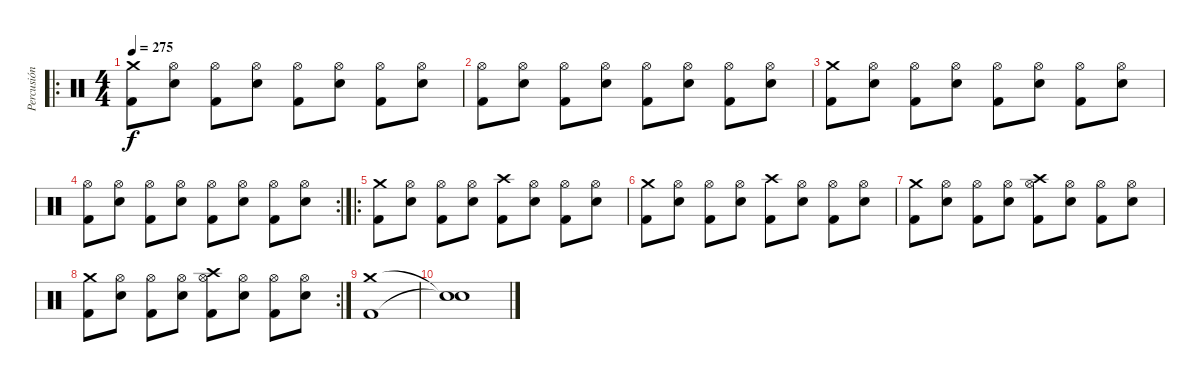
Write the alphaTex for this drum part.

\track ("Percusión" "Percusión") {instrument percussion}
\staff {score}
\articulation defaults
\ro
\ts (4 4)
\tempo 275
\clef neutral
\ks c
("Crash medium (hit)" "Kick (hit) 2").8{dy f} ("Hi-Hat (open)" "Electric Snare (hit)").8 ("Hi-Hat (open)" "Kick (hit) 2").8 ("Hi-Hat (open)" "Electric Snare (hit)").8 ("Hi-Hat (open)" "Kick (hit) 2").8 ("Hi-Hat (open)" "Electric Snare (hit)").8 ("Hi-Hat (open)" "Kick (hit) 2").8 ("Hi-Hat (open)" "Electric Snare (hit)").8 |
("Hi-Hat (open)" "Kick (hit) 2").8 ("Hi-Hat (open)" "Electric Snare (hit)").8 ("Hi-Hat (open)" "Kick (hit) 2").8 ("Hi-Hat (open)" "Electric Snare (hit)").8 ("Hi-Hat (open)" "Kick (hit) 2").8 ("Hi-Hat (open)" "Electric Snare (hit)").8 ("Hi-Hat (open)" "Kick (hit) 2").8 ("Hi-Hat (open)" "Electric Snare (hit)").8 |
("Crash medium (hit)" "Kick (hit) 2").8 ("Hi-Hat (open)" "Electric Snare (hit)").8 ("Hi-Hat (open)" "Kick (hit) 2").8 ("Hi-Hat (open)" "Electric Snare (hit)").8 ("Hi-Hat (open)" "Kick (hit) 2").8 ("Hi-Hat (open)" "Electric Snare (hit)").8 ("Hi-Hat (open)" "Kick (hit) 2").8 ("Hi-Hat (open)" "Electric Snare (hit)").8 |
\rc 2
("Hi-Hat (open)" "Kick (hit) 2").8 ("Hi-Hat (open)" "Electric Snare (hit)").8 ("Hi-Hat (open)" "Kick (hit) 2").8 ("Hi-Hat (open)" "Electric Snare (hit)").8 ("Hi-Hat (open)" "Kick (hit) 2").8 ("Hi-Hat (open)" "Electric Snare (hit)").8 ("Hi-Hat (open)" "Kick (hit) 2").8 ("Hi-Hat (open)" "Electric Snare (hit)").8 |
\ro
("Crash medium (hit)" "Kick (hit) 2").8 ("Hi-Hat (open)" "Electric Snare (hit)").8 ("Hi-Hat (open)" "Kick (hit) 2").8 ("Hi-Hat (open)" "Electric Snare (hit)").8 ("Crash high (hit)" "Kick (hit) 2").8 ("Hi-Hat (open)" "Electric Snare (hit)").8 ("Hi-Hat (open)" "Kick (hit) 2").8 ("Hi-Hat (open)" "Electric Snare (hit)").8 |
("Crash medium (hit)" "Kick (hit) 2").8 ("Hi-Hat (open)" "Electric Snare (hit)").8 ("Hi-Hat (open)" "Kick (hit) 2").8 ("Hi-Hat (open)" "Electric Snare (hit)").8 ("Crash high (hit)" "Kick (hit) 2").8 ("Hi-Hat (open)" "Electric Snare (hit)").8 ("Hi-Hat (open)" "Kick (hit) 2").8 ("Hi-Hat (open)" "Electric Snare (hit)").8 |
("Crash medium (hit)" "Kick (hit) 2").8 ("Hi-Hat (open)" "Electric Snare (hit)").8 ("Hi-Hat (open)" "Kick (hit) 2").8 ("Hi-Hat (open)" "Electric Snare (hit)").8 ("Crash high (hit)" "Hi-Hat (open)" "Kick (hit) 2").8 ("Hi-Hat (open)" "Electric Snare (hit)").8 ("Hi-Hat (open)" "Kick (hit) 2").8 ("Hi-Hat (open)" "Electric Snare (hit)").8 |
\rc 2
("Crash medium (hit)" "Kick (hit) 2").8 ("Hi-Hat (open)" "Electric Snare (hit)").8 ("Hi-Hat (open)" "Kick (hit) 2").8 ("Hi-Hat (open)" "Electric Snare (hit)").8 ("Crash high (hit)" "Hi-Hat (open)" "Kick (hit) 2").8 ("Hi-Hat (open)" "Electric Snare (hit)").8 ("Hi-Hat (open)" "Kick (hit) 2").8 ("Hi-Hat (open)" "Electric Snare (hit)").8 |
("Crash medium (hit)" "Kick (hit) 2").1 |
("Snare (hit)"{t} "Snare (hit)"{t}).1
